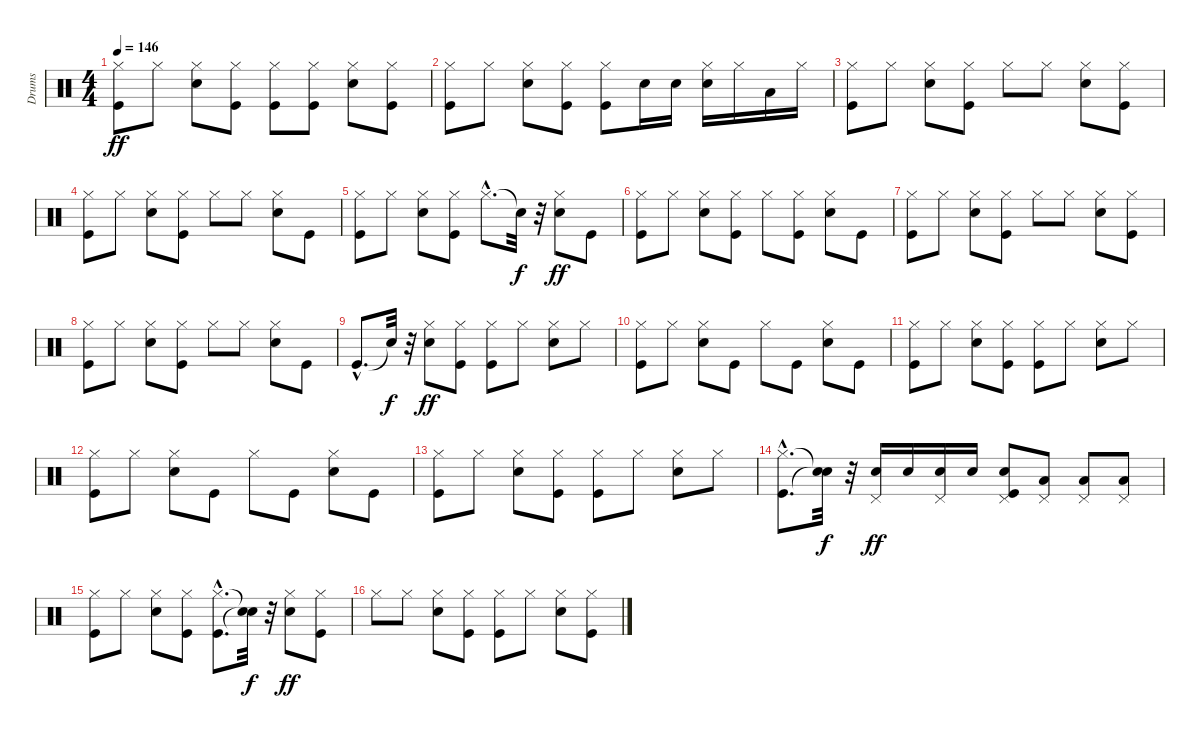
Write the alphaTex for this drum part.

\track ("Drums" "Drums") {instrument percussion}
\staff {score}
\articulation defaults
\ts (4 4)
\tempo 146
\clef neutral
\ks c
("Kick (hit)" "Hi-Hat (closed)").8{dy ff} "Hi-Hat (closed)".8 ("Snare (hit) 2" "Hi-Hat (closed)").8 ("Kick (hit)" "Hi-Hat (closed)").8 ("Kick (hit)" "Hi-Hat (closed)").8 ("Kick (hit)" "Hi-Hat (closed)").8 ("Snare (hit) 2" "Hi-Hat (closed)").8 ("Kick (hit)" "Hi-Hat (closed)").8 |
("Kick (hit)" "Hi-Hat (closed)").8 "Hi-Hat (closed)".8 ("Snare (hit) 2" "Hi-Hat (closed)").8 ("Kick (hit)" "Hi-Hat (closed)").8 ("Kick (hit)" "Hi-Hat (closed)").8 "Snare (hit) 2".16 "Snare (hit) 2".16 ("Snare (hit) 2" "Hi-Hat (closed)").16 "Hi-Hat (closed)".16 "Low Floor Tom (hit)".16 "Hi-Hat (closed)".16 |
("Kick (hit)" "Hi-Hat (closed)").8 "Hi-Hat (closed)".8 ("Snare (hit) 2" "Hi-Hat (closed)").8 ("Kick (hit)" "Hi-Hat (closed)").8 "Hi-Hat (closed)".8 "Hi-Hat (closed)".8 ("Snare (hit) 2" "Hi-Hat (closed)").8 ("Kick (hit)" "Hi-Hat (closed)").8 |
("Kick (hit)" "Hi-Hat (closed)").8 "Hi-Hat (closed)".8 ("Snare (hit) 2" "Hi-Hat (closed)").8 ("Kick (hit)" "Hi-Hat (closed)").8 "Hi-Hat (closed)".8 "Hi-Hat (closed)".8 ("Snare (hit) 2" "Hi-Hat (closed)").8 "Kick (hit)".8 |
("Kick (hit)" "Hi-Hat (closed)").8 "Hi-Hat (closed)".8 ("Snare (hit) 2" "Hi-Hat (closed)").8 ("Kick (hit)" "Hi-Hat (closed)").8 "Hi-Hat (closed)"{hac}.8{d} "Snare (hit)"{t}.32{dy f} r.32 ("Snare (hit) 2" "Hi-Hat (closed)").8{dy ff} "Kick (hit)".8 |
("Kick (hit)" "Hi-Hat (closed)").8 "Hi-Hat (closed)".8 ("Snare (hit) 2" "Hi-Hat (closed)").8 ("Kick (hit)" "Hi-Hat (closed)").8 "Hi-Hat (closed)".8 ("Kick (hit)" "Hi-Hat (closed)").8 ("Snare (hit) 2" "Hi-Hat (closed)").8 "Kick (hit)".8 |
("Kick (hit)" "Hi-Hat (closed)").8 "Hi-Hat (closed)".8 ("Snare (hit) 2" "Hi-Hat (closed)").8 ("Kick (hit)" "Hi-Hat (closed)").8 "Hi-Hat (closed)".8 "Hi-Hat (closed)".8 ("Snare (hit) 2" "Hi-Hat (closed)").8 ("Kick (hit)" "Hi-Hat (closed)").8 |
("Kick (hit)" "Hi-Hat (closed)").8 "Hi-Hat (closed)".8 ("Snare (hit) 2" "Hi-Hat (closed)").8 ("Kick (hit)" "Hi-Hat (closed)").8 "Hi-Hat (closed)".8 "Hi-Hat (closed)".8 ("Snare (hit) 2" "Hi-Hat (closed)").8 "Kick (hit)".8 |
"Kick (hit)"{hac}.8{d} "Snare (hit)"{t}.32{dy f} r.32 ("Snare (hit) 2" "Hi-Hat (closed)").8{dy ff} ("Kick (hit)" "Hi-Hat (closed)").8 ("Kick (hit)" "Hi-Hat (closed)").8 "Hi-Hat (closed)".8 ("Snare (hit) 2" "Hi-Hat (closed)").8 "Hi-Hat (closed)".8 |
("Kick (hit)" "Hi-Hat (closed)").8 "Hi-Hat (closed)".8 ("Snare (hit) 2" "Hi-Hat (closed)").8 "Kick (hit)".8 "Hi-Hat (closed)".8 "Kick (hit)".8 ("Snare (hit) 2" "Hi-Hat (closed)").8 "Kick (hit)".8 |
("Kick (hit)" "Hi-Hat (closed)").8 "Hi-Hat (closed)".8 ("Snare (hit) 2" "Hi-Hat (closed)").8 ("Kick (hit)" "Hi-Hat (closed)").8 ("Kick (hit)" "Hi-Hat (closed)").8 "Hi-Hat (closed)".8 ("Snare (hit) 2" "Hi-Hat (closed)").8 "Hi-Hat (closed)".8 |
("Kick (hit)" "Hi-Hat (closed)").8 "Hi-Hat (closed)".8 ("Snare (hit) 2" "Hi-Hat (closed)").8 "Kick (hit)".8 "Hi-Hat (closed)".8 "Kick (hit)".8 ("Snare (hit) 2" "Hi-Hat (closed)").8 "Kick (hit)".8 |
("Kick (hit)" "Hi-Hat (closed)").8 "Hi-Hat (closed)".8 ("Snare (hit) 2" "Hi-Hat (closed)").8 ("Kick (hit)" "Hi-Hat (closed)").8 ("Kick (hit)" "Hi-Hat (closed)").8 "Hi-Hat (closed)".8 ("Snare (hit) 2" "Hi-Hat (closed)").8 "Hi-Hat (closed)".8 |
("Kick (hit)"{hac} "Hi-Hat (closed)"{hac}).8{d} ("Snare (hit)"{t} "Snare (hit)"{t}).32{dy f} r.32 ("Snare (hit) 2" "Pedal Hi-Hat (hit)").16{dy ff} "Snare (hit) 2".16 ("Snare (hit) 2" "Pedal Hi-Hat (hit)").16 "Snare (hit) 2".16 ("Kick (hit)" "Snare (hit) 2" "Pedal Hi-Hat (hit)").8 ("Pedal Hi-Hat (hit)" "Low Tom (hit)").8 ("Low Floor Tom (hit)" "Pedal Hi-Hat (hit)").8 ("Low Floor Tom (hit)" "Pedal Hi-Hat (hit)").8 |
("Kick (hit)" "Hi-Hat (closed)").8 "Hi-Hat (closed)".8 ("Snare (hit) 2" "Hi-Hat (closed)").8 ("Kick (hit)" "Hi-Hat (closed)").8 ("Kick (hit)"{hac} "Hi-Hat (closed)"{hac}).8{d} ("Snare (hit)"{t} "Snare (hit)"{t}).32{dy f} r.32 ("Snare (hit) 2" "Hi-Hat (closed)").8{dy ff} ("Kick (hit)" "Hi-Hat (closed)").8 |
"Hi-Hat (closed)".8 "Hi-Hat (closed)".8 ("Snare (hit) 2" "Hi-Hat (closed)").8 ("Kick (hit)" "Hi-Hat (closed)").8 ("Kick (hit)" "Hi-Hat (closed)").8 "Hi-Hat (closed)".8 ("Snare (hit) 2" "Hi-Hat (closed)").8 ("Kick (hit)" "Hi-Hat (closed)").8
